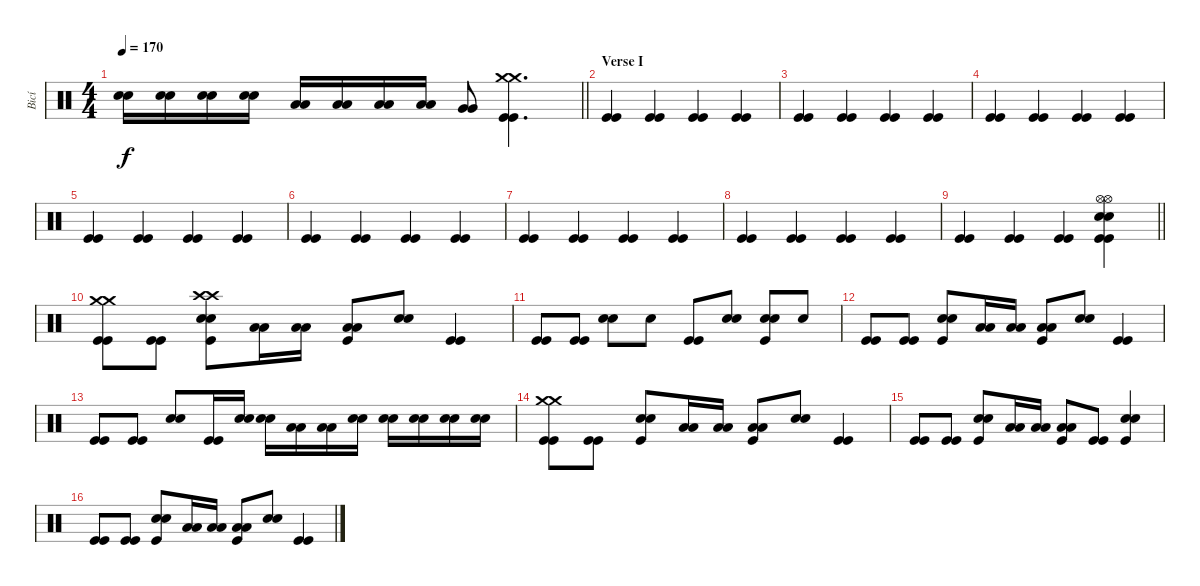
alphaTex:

\track ("Bicí" "Bicí") {instrument percussion}
\staff {score}
\articulation defaults
\ts (4 4)
\tempo 170
\clef neutral
\barLineRight lightlight
\ks c
("Electric Snare (hit)" "Electric Snare (hit)").16{dy f} ("Electric Snare (hit)" "Electric Snare (hit)").16 ("Electric Snare (hit)" "Electric Snare (hit)").16 ("Electric Snare (hit)" "Electric Snare (hit)").16 ("Low Tom (hit)" "Low Tom (hit)").16 ("Low Tom (hit)" "Low Tom (hit)").16 ("Low Tom (hit)" "Low Tom (hit)").16 ("Low Tom (hit)" "Low Tom (hit)").16 ("Very Low Tom (hit)" "Very Low Tom (hit)").8 ("Crash medium (hit)" "Crash medium (hit)" "Kick (hit)" "Kick (hit)").4{d} |
\section ("" "Verse I")
("Kick (hit)" "Kick (hit)").4 ("Kick (hit)" "Kick (hit)").4 ("Kick (hit)" "Kick (hit)").4 ("Kick (hit)" "Kick (hit)").4 |
("Kick (hit)" "Kick (hit)").4 ("Kick (hit)" "Kick (hit)").4 ("Kick (hit)" "Kick (hit)").4 ("Kick (hit)" "Kick (hit)").4 |
("Kick (hit)" "Kick (hit)").4 ("Kick (hit)" "Kick (hit)").4 ("Kick (hit)" "Kick (hit)").4 ("Kick (hit)" "Kick (hit)").4 |
("Kick (hit)" "Kick (hit)").4 ("Kick (hit)" "Kick (hit)").4 ("Kick (hit)" "Kick (hit)").4 ("Kick (hit)" "Kick (hit)").4 |
("Kick (hit)" "Kick (hit)").4 ("Kick (hit)" "Kick (hit)").4 ("Kick (hit)" "Kick (hit)").4 ("Kick (hit)" "Kick (hit)").4 |
("Kick (hit)" "Kick (hit)").4 ("Kick (hit)" "Kick (hit)").4 ("Kick (hit)" "Kick (hit)").4 ("Kick (hit)" "Kick (hit)").4 |
("Kick (hit)" "Kick (hit)").4 ("Kick (hit)" "Kick (hit)").4 ("Kick (hit)" "Kick (hit)").4 ("Kick (hit)" "Kick (hit)").4 |
\barLineRight lightlight
("Kick (hit)" "Kick (hit)").4 ("Kick (hit)" "Kick (hit)").4 ("Kick (hit)" "Kick (hit)").4 ("Hi-Hat (open)" "Hi-Hat (open)" "Electric Snare (hit)" "Electric Snare (hit)" "Kick (hit)" "Kick (hit)").4 |
\section ("" "")
("Crash medium (hit)" "Crash medium (hit)" "Kick (hit)" "Kick (hit)").8 ("Kick (hit)" "Kick (hit)").8 ("Crash high (hit)" "Crash high (hit)" "Electric Snare (hit)" "Electric Snare (hit)" "Kick (hit)").8 ("Low Tom (hit)" "Low Tom (hit)").16 ("Low Tom (hit)" "Low Tom (hit)").16 ("Low Tom (hit)" "Low Tom (hit)" "Kick (hit)").8 ("Electric Snare (hit)" "Electric Snare (hit)").8 ("Kick (hit)" "Kick (hit)").4 |
("Kick (hit)" "Kick (hit)").8 ("Kick (hit)" "Kick (hit)").8 ("Electric Snare (hit)" "Electric Snare (hit)").8 "Snare (hit)".8 ("Kick (hit)" "Kick (hit)").8 ("Electric Snare (hit)" "Electric Snare (hit)").8 ("Electric Snare (hit)" "Electric Snare (hit)" "Kick (hit)").8 "Snare (hit)".8 |
("Kick (hit)" "Kick (hit)").8 ("Kick (hit)" "Kick (hit)").8 ("Electric Snare (hit)" "Electric Snare (hit)" "Kick (hit)").8 ("Low Tom (hit)" "Low Tom (hit)").16 ("Low Tom (hit)" "Low Tom (hit)").16 ("Low Tom (hit)" "Low Tom (hit)" "Kick (hit)").8 ("Electric Snare (hit)" "Electric Snare (hit)").8 ("Kick (hit)" "Kick (hit)").4 |
("Kick (hit)" "Kick (hit)").8 ("Kick (hit)" "Kick (hit)").8 ("Electric Snare (hit)" "Electric Snare (hit)").8 ("Kick (hit)" "Kick (hit)").16 ("Electric Snare (hit)" "Electric Snare (hit)").16 ("Electric Snare (hit)" "Electric Snare (hit)").16 ("Low Tom (hit)" "Low Tom (hit)").16 ("Low Tom (hit)" "Low Tom (hit)").16 ("Electric Snare (hit)" "Electric Snare (hit)").16 ("Electric Snare (hit)" "Electric Snare (hit)").16 ("Electric Snare (hit)" "Electric Snare (hit)").16 ("Electric Snare (hit)" "Electric Snare (hit)").16 ("Electric Snare (hit)" "Electric Snare (hit)").16 |
("Crash medium (hit)" "Crash medium (hit)" "Kick (hit)" "Kick (hit)").8 ("Kick (hit)" "Kick (hit)").8 ("Electric Snare (hit)" "Electric Snare (hit)" "Kick (hit)").8 ("Low Tom (hit)" "Low Tom (hit)").16 ("Low Tom (hit)" "Low Tom (hit)").16 ("Low Tom (hit)" "Low Tom (hit)" "Kick (hit)").8 ("Electric Snare (hit)" "Electric Snare (hit)").8 ("Kick (hit)" "Kick (hit)").4 |
("Kick (hit)" "Kick (hit)").8 ("Kick (hit)" "Kick (hit)").8 ("Electric Snare (hit)" "Electric Snare (hit)" "Kick (hit)").8 ("Low Tom (hit)" "Low Tom (hit)").16 ("Low Tom (hit)" "Low Tom (hit)").16 ("Low Tom (hit)" "Low Tom (hit)" "Kick (hit)").8 ("Kick (hit)" "Kick (hit)").8 ("Electric Snare (hit)" "Electric Snare (hit)" "Kick (hit)").4 |
("Kick (hit)" "Kick (hit)").8 ("Kick (hit)" "Kick (hit)").8 ("Electric Snare (hit)" "Electric Snare (hit)" "Kick (hit)").8 ("Low Tom (hit)" "Low Tom (hit)").16 ("Low Tom (hit)" "Low Tom (hit)").16 ("Low Tom (hit)" "Low Tom (hit)" "Kick (hit)").8 ("Electric Snare (hit)" "Electric Snare (hit)").8 ("Kick (hit)" "Kick (hit)").4
